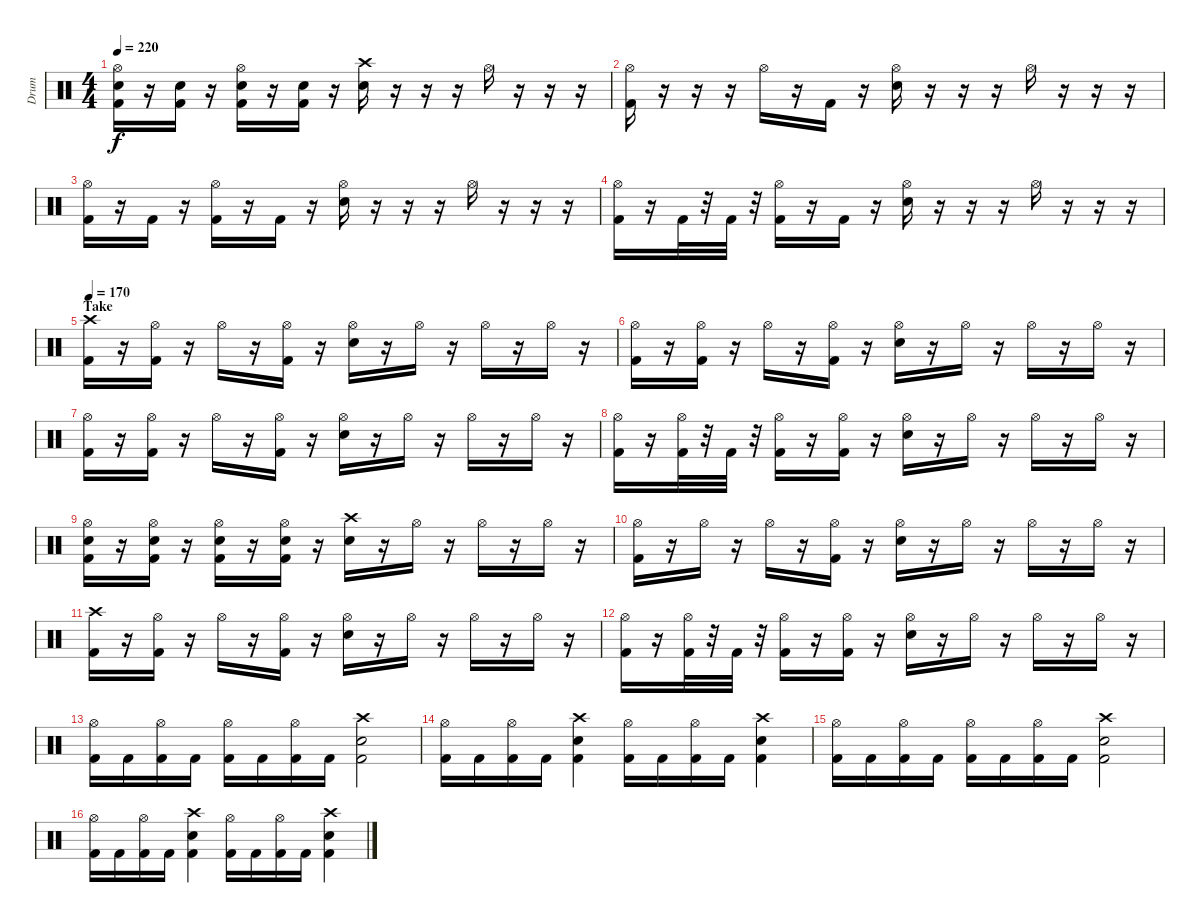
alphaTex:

\track ("Drum" "Drum") {instrument percussion}
\staff {score}
\articulation defaults
\ts (4 4)
\tempo 220
\clef neutral
\ks c
("Hi-Hat (open)" "Electric Snare (hit)" "Kick (hit) 2").16{dy f} r.16 ("Electric Snare (hit)" "Kick (hit) 2").16 r.16 ("Hi-Hat (open)" "Electric Snare (hit)" "Kick (hit) 2").16 r.16 ("Electric Snare (hit)" "Kick (hit) 2").16 r.16 ("Crash high (hit)" "Electric Snare (hit)").16 r.16 r.16 r.16 "Hi-Hat (open)".16 r.16 r.16 r.16 |
("Hi-Hat (open)" "Kick (hit) 2").16 r.16 r.16 r.16 "Hi-Hat (open)".16 r.16 "Kick (hit) 2".16 r.16 ("Hi-Hat (open)" "Electric Snare (hit)").16 r.16 r.16 r.16 "Hi-Hat (open)".16 r.16 r.16 r.16 |
("Hi-Hat (open)" "Kick (hit) 2").16 r.16 "Kick (hit) 2".16 r.16 ("Hi-Hat (open)" "Kick (hit) 2").16 r.16 "Kick (hit) 2".16 r.16 ("Hi-Hat (open)" "Electric Snare (hit)").16 r.16 r.16 r.16 "Hi-Hat (open)".16 r.16 r.16 r.16 |
("Hi-Hat (open)" "Kick (hit) 2").16 r.16 "Kick (hit) 2".32 r.32 "Kick (hit) 2".32 r.32 ("Hi-Hat (open)" "Kick (hit) 2").16 r.16 "Kick (hit) 2".16 r.16 ("Hi-Hat (open)" "Electric Snare (hit)").16 r.16 r.16 r.16 "Hi-Hat (open)".16 r.16 r.16 r.16 |
\section ("" "Take")
\tempo 170
("Crash high (hit)" "Kick (hit) 2").16 r.16 ("Hi-Hat (open)" "Kick (hit) 2").16 r.16 "Hi-Hat (open)".16 r.16 ("Hi-Hat (open)" "Kick (hit) 2").16 r.16 ("Hi-Hat (open)" "Electric Snare (hit)").16 r.16 "Hi-Hat (open)".16 r.16 "Hi-Hat (open)".16 r.16 "Hi-Hat (open)".16 r.16 |
("Hi-Hat (open)" "Kick (hit) 2").16 r.16 ("Hi-Hat (open)" "Kick (hit) 2").16 r.16 "Hi-Hat (open)".16 r.16 ("Hi-Hat (open)" "Kick (hit) 2").16 r.16 ("Hi-Hat (open)" "Electric Snare (hit)").16 r.16 "Hi-Hat (open)".16 r.16 "Hi-Hat (open)".16 r.16 "Hi-Hat (open)".16 r.16 |
("Hi-Hat (open)" "Kick (hit) 2").16 r.16 ("Hi-Hat (open)" "Kick (hit) 2").16 r.16 "Hi-Hat (open)".16 r.16 ("Hi-Hat (open)" "Kick (hit) 2").16 r.16 ("Hi-Hat (open)" "Electric Snare (hit)").16 r.16 "Hi-Hat (open)".16 r.16 "Hi-Hat (open)".16 r.16 "Hi-Hat (open)".16 r.16 |
("Hi-Hat (open)" "Kick (hit) 2").16 r.16 ("Hi-Hat (open)" "Kick (hit) 2").32 r.32 "Kick (hit) 2".32 r.32 ("Hi-Hat (open)" "Kick (hit) 2").16 r.16 ("Hi-Hat (open)" "Kick (hit) 2").16 r.16 ("Hi-Hat (open)" "Electric Snare (hit)").16 r.16 "Hi-Hat (open)".16 r.16 "Hi-Hat (open)".16 r.16 "Hi-Hat (open)".16 r.16 |
("Hi-Hat (open)" "Electric Snare (hit)" "Kick (hit) 2").16 r.16 ("Hi-Hat (open)" "Electric Snare (hit)" "Kick (hit) 2").16 r.16 ("Hi-Hat (open)" "Electric Snare (hit)" "Kick (hit) 2").16 r.16 ("Hi-Hat (open)" "Electric Snare (hit)" "Kick (hit) 2").16 r.16 ("Crash high (hit)" "Electric Snare (hit)").16 r.16 "Hi-Hat (open)".16 r.16 "Hi-Hat (open)".16 r.16 "Hi-Hat (open)".16 r.16 |
("Hi-Hat (open)" "Kick (hit) 2").16 r.16 "Hi-Hat (open)".16 r.16 "Hi-Hat (open)".16 r.16 ("Hi-Hat (open)" "Kick (hit) 2").16 r.16 ("Hi-Hat (open)" "Electric Snare (hit)").16 r.16 "Hi-Hat (open)".16 r.16 "Hi-Hat (open)".16 r.16 "Hi-Hat (open)".16 r.16 |
("Crash high (hit)" "Kick (hit) 2").16 r.16 ("Hi-Hat (open)" "Kick (hit) 2").16 r.16 "Hi-Hat (open)".16 r.16 ("Hi-Hat (open)" "Kick (hit) 2").16 r.16 ("Hi-Hat (open)" "Electric Snare (hit)").16 r.16 "Hi-Hat (open)".16 r.16 "Hi-Hat (open)".16 r.16 "Hi-Hat (open)".16 r.16 |
("Hi-Hat (open)" "Kick (hit) 2").16 r.16 ("Hi-Hat (open)" "Kick (hit) 2").32 r.32 "Kick (hit) 2".32 r.32 ("Hi-Hat (open)" "Kick (hit) 2").16 r.16 ("Hi-Hat (open)" "Kick (hit) 2").16 r.16 ("Hi-Hat (open)" "Electric Snare (hit)").16 r.16 "Hi-Hat (open)".16 r.16 "Hi-Hat (open)".16 r.16 "Hi-Hat (open)".16 r.16 |
("Hi-Hat (open)" "Kick (hit) 2").16 "Kick (hit) 2".16 ("Hi-Hat (open)" "Kick (hit) 2").16 "Kick (hit) 2".16 ("Hi-Hat (open)" "Kick (hit) 2").16 "Kick (hit) 2".16 ("Hi-Hat (open)" "Kick (hit) 2").16 "Kick (hit) 2".16 ("Crash high (hit)" "Electric Snare (hit)" "Kick (hit) 2").2 |
("Hi-Hat (open)" "Kick (hit) 2").16 "Kick (hit) 2".16 ("Hi-Hat (open)" "Kick (hit) 2").16 "Kick (hit) 2".16 ("Crash high (hit)" "Electric Snare (hit)" "Kick (hit) 2").4 ("Hi-Hat (open)" "Kick (hit) 2").16 "Kick (hit) 2".16 ("Hi-Hat (open)" "Kick (hit) 2").16 "Kick (hit) 2".16 ("Crash high (hit)" "Electric Snare (hit)" "Kick (hit) 2").4 |
("Hi-Hat (open)" "Kick (hit) 2").16 "Kick (hit) 2".16 ("Hi-Hat (open)" "Kick (hit) 2").16 "Kick (hit) 2".16 ("Hi-Hat (open)" "Kick (hit) 2").16 "Kick (hit) 2".16 ("Hi-Hat (open)" "Kick (hit) 2").16 "Kick (hit) 2".16 ("Crash high (hit)" "Electric Snare (hit)" "Kick (hit) 2").2 |
("Hi-Hat (open)" "Kick (hit) 2").16 "Kick (hit) 2".16 ("Hi-Hat (open)" "Kick (hit) 2").16 "Kick (hit) 2".16 ("Crash high (hit)" "Electric Snare (hit)" "Kick (hit) 2").4 ("Hi-Hat (open)" "Kick (hit) 2").16 "Kick (hit) 2".16 ("Hi-Hat (open)" "Kick (hit) 2").16 "Kick (hit) 2".16 ("Crash high (hit)" "Electric Snare (hit)" "Kick (hit) 2").4
